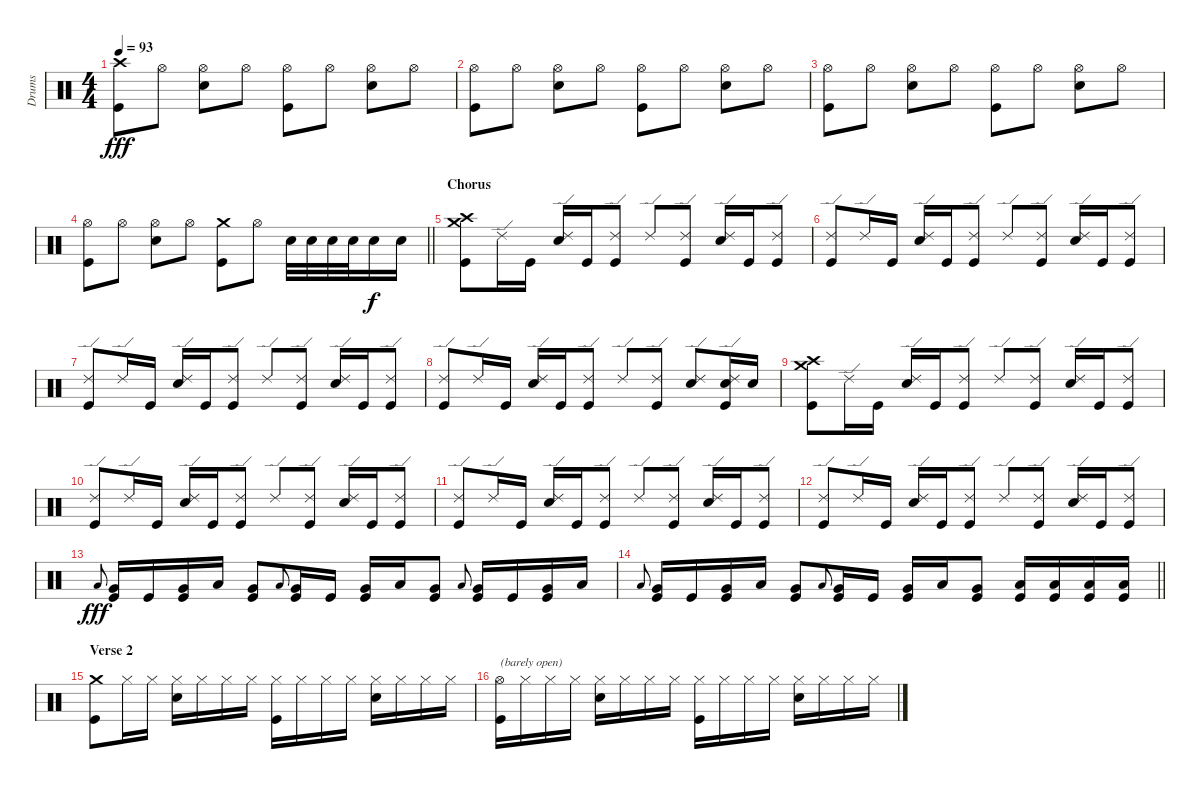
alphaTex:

\track ("Drums" "Drums") {instrument percussion}
\staff {score}
\articulation defaults
\ts (4 4)
\tempo 93
\clef neutral
\ks c
("Crash high (hit)" "Kick (hit)").8{dy fff} "Hi-Hat (open)".8 ("Hi-Hat (open)" "Electric Snare (hit)").8 "Hi-Hat (open)".8 ("Hi-Hat (open)" "Kick (hit)").8 "Hi-Hat (open)".8 ("Hi-Hat (open)" "Electric Snare (hit)").8 "Hi-Hat (open)".8 |
("Hi-Hat (open)" "Kick (hit)").8 "Hi-Hat (open)".8 ("Hi-Hat (open)" "Electric Snare (hit)").8 "Hi-Hat (open)".8 ("Hi-Hat (open)" "Kick (hit)").8 "Hi-Hat (open)".8 ("Hi-Hat (open)" "Electric Snare (hit)").8 "Hi-Hat (open)".8 |
("Hi-Hat (open)" "Kick (hit)").8 "Hi-Hat (open)".8 ("Hi-Hat (open)" "Electric Snare (hit)").8 "Hi-Hat (open)".8 ("Hi-Hat (open)" "Kick (hit)").8 "Hi-Hat (open)".8 ("Hi-Hat (open)" "Electric Snare (hit)").8 "Hi-Hat (open)".8 |
\barLineRight lightlight
("Hi-Hat (open)" "Kick (hit)").8 "Hi-Hat (open)".8 ("Hi-Hat (open)" "Snare (hit) 2").8 "Hi-Hat (open)".8 ("Crash medium (hit)" "Kick (hit)").8 "Hi-Hat (open)".8 "Snare (hit) 2".32 "Snare (hit) 2".32 "Snare (hit) 2".32 "Snare (hit) 2".32 "Snare (hit) 2".16{dy f} "Snare (hit) 2".16 |
\section ("" "Chorus")
("Crash high (hit)" "Crash medium (hit)" "Kick (hit)").8 "Ride (edge) 2".16 "Kick (hit)".16 ("Ride (edge) 2" "Snare (hit) 2").16 "Kick (hit)".16 ("Ride (edge) 2" "Kick (hit)").8 "Ride (edge) 2".8 ("Ride (edge) 2" "Kick (hit)").8 ("Ride (edge) 2" "Snare (hit) 2").16 "Kick (hit)".16 ("Ride (edge) 2" "Kick (hit)").8 |
("Ride (edge) 2" "Kick (hit)").8 "Ride (edge) 2".16 "Kick (hit)".16 ("Ride (edge) 2" "Snare (hit) 2").16 "Kick (hit)".16 ("Ride (edge) 2" "Kick (hit)").8 "Ride (edge) 2".8 ("Ride (edge) 2" "Kick (hit)").8 ("Ride (edge) 2" "Snare (hit) 2").16 "Kick (hit)".16 ("Ride (edge) 2" "Kick (hit)").8 |
("Ride (edge) 2" "Kick (hit)").8 "Ride (edge) 2".16 "Kick (hit)".16 ("Ride (edge) 2" "Snare (hit) 2").16 "Kick (hit)".16 ("Ride (edge) 2" "Kick (hit)").8 "Ride (edge) 2".8 ("Ride (edge) 2" "Kick (hit)").8 ("Ride (edge) 2" "Snare (hit) 2").16 "Kick (hit)".16 ("Ride (edge) 2" "Kick (hit)").8 |
("Ride (edge) 2" "Kick (hit)").8 "Ride (edge) 2".16 "Kick (hit)".16 ("Ride (edge) 2" "Snare (hit) 2").16 "Kick (hit)".16 ("Ride (edge) 2" "Kick (hit)").8 "Ride (edge) 2".8 ("Ride (edge) 2" "Kick (hit)").8 ("Ride (edge) 2" "Snare (hit) 2").8 ("Ride (edge) 2" "Snare (hit) 2" "Kick (hit)").16 "Snare (hit) 2".16 |
("Crash high (hit)" "Crash medium (hit)" "Kick (hit)").8 "Ride (edge) 2".16 "Kick (hit)".16 ("Ride (edge) 2" "Snare (hit) 2").16 "Kick (hit)".16 ("Ride (edge) 2" "Kick (hit)").8 "Ride (edge) 2".8 ("Ride (edge) 2" "Kick (hit)").8 ("Ride (edge) 2" "Snare (hit) 2").16 "Kick (hit)".16 ("Ride (edge) 2" "Kick (hit)").8 |
("Ride (edge) 2" "Kick (hit)").8 "Ride (edge) 2".16 "Kick (hit)".16 ("Ride (edge) 2" "Snare (hit) 2").16 "Kick (hit)".16 ("Ride (edge) 2" "Kick (hit)").8 "Ride (edge) 2".8 ("Ride (edge) 2" "Kick (hit)").8 ("Ride (edge) 2" "Snare (hit) 2").16 "Kick (hit)".16 ("Ride (edge) 2" "Kick (hit)").8 |
("Ride (edge) 2" "Kick (hit)").8 "Ride (edge) 2".16 "Kick (hit)".16 ("Ride (edge) 2" "Snare (hit) 2").16 "Kick (hit)".16 ("Ride (edge) 2" "Kick (hit)").8 "Ride (edge) 2".8 ("Ride (edge) 2" "Kick (hit)").8 ("Ride (edge) 2" "Snare (hit) 2").16 "Kick (hit)".16 ("Ride (edge) 2" "Kick (hit)").8 |
("Ride (edge) 2" "Kick (hit)").8 "Ride (edge) 2".16 "Kick (hit)".16 ("Ride (edge) 2" "Snare (hit) 2").16 "Kick (hit)".16 ("Ride (edge) 2" "Kick (hit)").8 "Ride (edge) 2".8 ("Ride (edge) 2" "Kick (hit)").8 ("Ride (edge) 2" "Snare (hit) 2").16 "Kick (hit)".16 ("Ride (edge) 2" "Kick (hit)").8 |
"Low Tom (hit)".8{gr onbeat dy fff} ("Very Low Tom (hit)" "Kick (hit)").16 "Kick (hit)".16 ("Very Low Tom (hit)" "Kick (hit)").16 "Low Tom (hit)".16 ("Very Low Tom (hit)" "Kick (hit)").8 "Low Tom (hit)".8{gr onbeat} ("Very Low Tom (hit)" "Kick (hit)").16 "Kick (hit)".16 ("Very Low Tom (hit)" "Kick (hit)").16 "Low Tom (hit)".16 ("Very Low Tom (hit)" "Kick (hit)").8 "Low Tom (hit)".8{gr onbeat} ("Very Low Tom (hit)" "Kick (hit)").16 "Kick (hit)".16 ("Very Low Tom (hit)" "Kick (hit)").16 "Low Tom (hit)".16 |
\barLineRight lightlight "Low Tom (hit)".8{gr onbeat}
("Very Low Tom (hit)" "Kick (hit)").16 "Kick (hit)".16 ("Very Low Tom (hit)" "Kick (hit)").16 "Low Tom (hit)".16 ("Very Low Tom (hit)" "Kick (hit)").8 "Low Tom (hit)".8{gr onbeat} ("Very Low Tom (hit)" "Kick (hit)").16 "Kick (hit)".16 ("Very Low Tom (hit)" "Kick (hit)").16 "Low Tom (hit)".16 ("Very Low Tom (hit)" "Kick (hit)").8 ("Low Floor Tom (hit)" "Kick (hit)").16 ("Low Floor Tom (hit)" "Kick (hit)").16 ("Low Floor Tom (hit)" "Kick (hit)").16 ("Low Floor Tom (hit)" "Kick (hit)").16 |
\section ("" "Verse 2")
("Crash medium (hit)" "Kick (hit)").8 "Hi-Hat (closed)".16 "Hi-Hat (closed)".16 ("Hi-Hat (closed)" "Snare (hit) 2").16 "Hi-Hat (closed)".16 "Hi-Hat (closed)".16 "Hi-Hat (closed)".16 ("Hi-Hat (closed)" "Kick (hit)").16 "Hi-Hat (closed)".16 "Hi-Hat (closed)".16 "Hi-Hat (closed)".16 ("Hi-Hat (closed)" "Snare (hit) 2").16 "Hi-Hat (closed)".16 "Hi-Hat (closed)".16 "Hi-Hat (closed)".16 |
("Hi-Hat (open)" "Kick (hit)").16{txt "(barely open)"} "Hi-Hat (closed)".16 "Hi-Hat (closed)".16 "Hi-Hat (closed)".16 ("Hi-Hat (closed)" "Snare (hit) 2").16 "Hi-Hat (closed)".16 "Hi-Hat (closed)".16 "Hi-Hat (closed)".16 ("Hi-Hat (closed)" "Kick (hit)").16 "Hi-Hat (closed)".16 "Hi-Hat (closed)".16 "Hi-Hat (closed)".16 ("Hi-Hat (closed)" "Snare (hit) 2").16 "Hi-Hat (closed)".16 "Hi-Hat (closed)".16 "Hi-Hat (closed)".16
